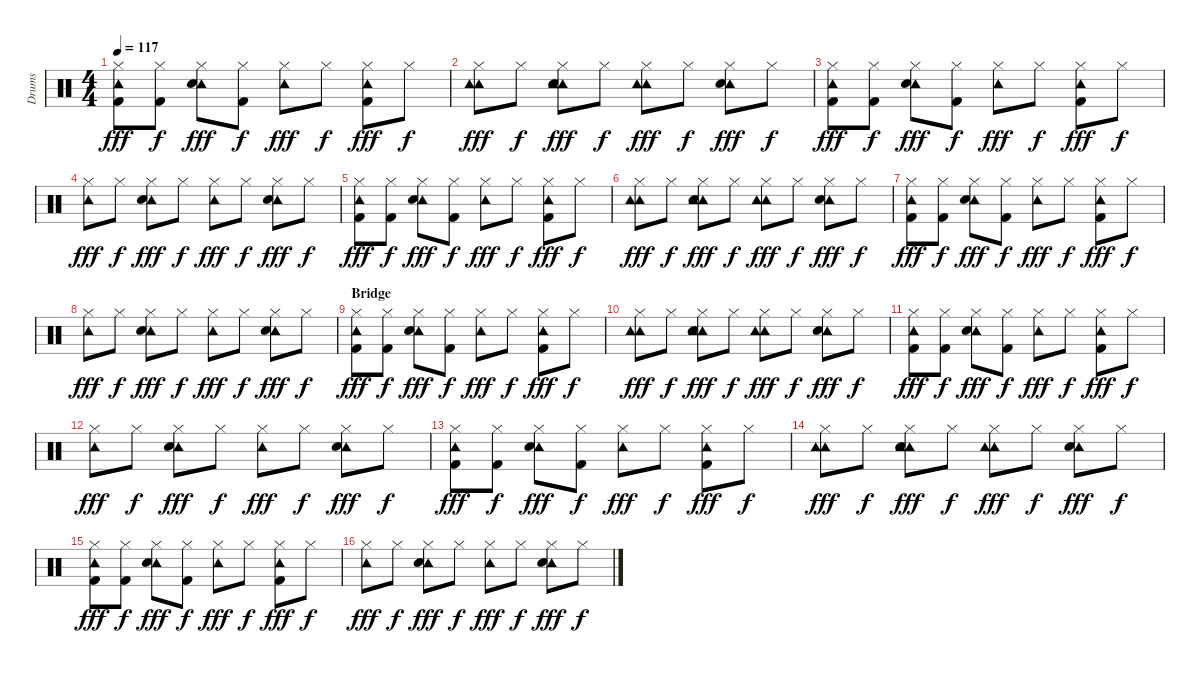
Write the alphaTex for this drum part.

\track ("Drums" "Drums") {instrument percussion}
\staff {score}
\articulation defaults
\ts (4 4)
\tempo 117
\clef neutral
\ks c
("Tambourine (hit)" "Hi-Hat (closed)" "Kick (hit) 2").8{dy fff} ("Hi-Hat (closed)" "Kick (hit) 2").8{dy f} ("Tambourine (hit)" "Hi-Hat (closed)" "Snare (hit) 2").8{dy fff} ("Hi-Hat (closed)" "Kick (hit) 2").8{dy f} ("Tambourine (hit)" "Hi-Hat (closed)").8{dy fff} "Hi-Hat (closed)".8{dy f} ("Tambourine (hit)" "Hi-Hat (closed)" "Kick (hit) 2").8{dy fff} "Hi-Hat (closed)".8{dy f} |
("Tambourine (hit)" "Tambourine (hit)" "Hi-Hat (closed)").8{dy fff} "Hi-Hat (closed)".8{dy f} ("Tambourine (hit)" "Tambourine (hit)" "Hi-Hat (closed)" "Snare (hit) 2").8{dy fff} "Hi-Hat (closed)".8{dy f} ("Tambourine (hit)" "Tambourine (hit)" "Hi-Hat (closed)").8{dy fff} "Hi-Hat (closed)".8{dy f} ("Tambourine (hit)" "Hi-Hat (closed)" "Snare (hit) 2").8{dy fff} "Hi-Hat (closed)".8{dy f} |
("Tambourine (hit)" "Hi-Hat (closed)" "Kick (hit) 2").8{dy fff} ("Hi-Hat (closed)" "Kick (hit) 2").8{dy f} ("Tambourine (hit)" "Hi-Hat (closed)" "Snare (hit) 2").8{dy fff} ("Hi-Hat (closed)" "Kick (hit) 2").8{dy f} ("Tambourine (hit)" "Hi-Hat (closed)").8{dy fff} "Hi-Hat (closed)".8{dy f} ("Tambourine (hit)" "Hi-Hat (closed)" "Kick (hit) 2").8{dy fff} "Hi-Hat (closed)".8{dy f} |
("Tambourine (hit)" "Hi-Hat (closed)").8{dy fff} "Hi-Hat (closed)".8{dy f} ("Tambourine (hit)" "Hi-Hat (closed)" "Snare (hit) 2").8{dy fff} "Hi-Hat (closed)".8{dy f} ("Tambourine (hit)" "Hi-Hat (closed)").8{dy fff} "Hi-Hat (closed)".8{dy f} ("Tambourine (hit)" "Hi-Hat (closed)" "Snare (hit) 2").8{dy fff} "Hi-Hat (closed)".8{dy f} |
("Tambourine (hit)" "Hi-Hat (closed)" "Kick (hit) 2").8{dy fff} ("Hi-Hat (closed)" "Kick (hit) 2").8{dy f} ("Tambourine (hit)" "Hi-Hat (closed)" "Snare (hit) 2").8{dy fff} ("Hi-Hat (closed)" "Kick (hit) 2").8{dy f} ("Tambourine (hit)" "Hi-Hat (closed)").8{dy fff} "Hi-Hat (closed)".8{dy f} ("Tambourine (hit)" "Hi-Hat (closed)" "Kick (hit) 2").8{dy fff} "Hi-Hat (closed)".8{dy f} |
("Tambourine (hit)" "Tambourine (hit)" "Hi-Hat (closed)").8{dy fff} "Hi-Hat (closed)".8{dy f} ("Tambourine (hit)" "Tambourine (hit)" "Hi-Hat (closed)" "Snare (hit) 2").8{dy fff} "Hi-Hat (closed)".8{dy f} ("Tambourine (hit)" "Tambourine (hit)" "Hi-Hat (closed)").8{dy fff} "Hi-Hat (closed)".8{dy f} ("Tambourine (hit)" "Hi-Hat (closed)" "Snare (hit) 2").8{dy fff} "Hi-Hat (closed)".8{dy f} |
("Tambourine (hit)" "Hi-Hat (closed)" "Kick (hit) 2").8{dy fff} ("Hi-Hat (closed)" "Kick (hit) 2").8{dy f} ("Tambourine (hit)" "Hi-Hat (closed)" "Snare (hit) 2").8{dy fff} ("Hi-Hat (closed)" "Kick (hit) 2").8{dy f} ("Tambourine (hit)" "Hi-Hat (closed)").8{dy fff} "Hi-Hat (closed)".8{dy f} ("Tambourine (hit)" "Hi-Hat (closed)" "Kick (hit) 2").8{dy fff} "Hi-Hat (closed)".8{dy f} |
("Tambourine (hit)" "Hi-Hat (closed)").8{dy fff} "Hi-Hat (closed)".8{dy f} ("Tambourine (hit)" "Hi-Hat (closed)" "Snare (hit) 2").8{dy fff} "Hi-Hat (closed)".8{dy f} ("Tambourine (hit)" "Hi-Hat (closed)").8{dy fff} "Hi-Hat (closed)".8{dy f} ("Tambourine (hit)" "Hi-Hat (closed)" "Snare (hit) 2").8{dy fff} "Hi-Hat (closed)".8{dy f} |
\section ("" "Bridge")
("Tambourine (hit)" "Hi-Hat (closed)" "Kick (hit) 2").8{dy fff} ("Hi-Hat (closed)" "Kick (hit) 2").8{dy f} ("Tambourine (hit)" "Hi-Hat (closed)" "Snare (hit) 2").8{dy fff} ("Hi-Hat (closed)" "Kick (hit) 2").8{dy f} ("Tambourine (hit)" "Hi-Hat (closed)").8{dy fff} "Hi-Hat (closed)".8{dy f} ("Tambourine (hit)" "Hi-Hat (closed)" "Kick (hit) 2").8{dy fff} "Hi-Hat (closed)".8{dy f} |
("Tambourine (hit)" "Tambourine (hit)" "Hi-Hat (closed)").8{dy fff} "Hi-Hat (closed)".8{dy f} ("Tambourine (hit)" "Tambourine (hit)" "Hi-Hat (closed)" "Snare (hit) 2").8{dy fff} "Hi-Hat (closed)".8{dy f} ("Tambourine (hit)" "Tambourine (hit)" "Hi-Hat (closed)").8{dy fff} "Hi-Hat (closed)".8{dy f} ("Tambourine (hit)" "Hi-Hat (closed)" "Snare (hit) 2").8{dy fff} "Hi-Hat (closed)".8{dy f} |
("Tambourine (hit)" "Hi-Hat (closed)" "Kick (hit) 2").8{dy fff} ("Hi-Hat (closed)" "Kick (hit) 2").8{dy f} ("Tambourine (hit)" "Hi-Hat (closed)" "Snare (hit) 2").8{dy fff} ("Hi-Hat (closed)" "Kick (hit) 2").8{dy f} ("Tambourine (hit)" "Hi-Hat (closed)").8{dy fff} "Hi-Hat (closed)".8{dy f} ("Tambourine (hit)" "Hi-Hat (closed)" "Kick (hit) 2").8{dy fff} "Hi-Hat (closed)".8{dy f} |
("Tambourine (hit)" "Hi-Hat (closed)").8{dy fff} "Hi-Hat (closed)".8{dy f} ("Tambourine (hit)" "Hi-Hat (closed)" "Snare (hit) 2").8{dy fff} "Hi-Hat (closed)".8{dy f} ("Tambourine (hit)" "Hi-Hat (closed)").8{dy fff} "Hi-Hat (closed)".8{dy f} ("Tambourine (hit)" "Hi-Hat (closed)" "Snare (hit) 2").8{dy fff} "Hi-Hat (closed)".8{dy f} |
("Tambourine (hit)" "Hi-Hat (closed)" "Kick (hit) 2").8{dy fff} ("Hi-Hat (closed)" "Kick (hit) 2").8{dy f} ("Tambourine (hit)" "Hi-Hat (closed)" "Snare (hit) 2").8{dy fff} ("Hi-Hat (closed)" "Kick (hit) 2").8{dy f} ("Tambourine (hit)" "Hi-Hat (closed)").8{dy fff} "Hi-Hat (closed)".8{dy f} ("Tambourine (hit)" "Hi-Hat (closed)" "Kick (hit) 2").8{dy fff} "Hi-Hat (closed)".8{dy f} |
("Tambourine (hit)" "Tambourine (hit)" "Hi-Hat (closed)").8{dy fff} "Hi-Hat (closed)".8{dy f} ("Tambourine (hit)" "Tambourine (hit)" "Hi-Hat (closed)" "Snare (hit) 2").8{dy fff} "Hi-Hat (closed)".8{dy f} ("Tambourine (hit)" "Tambourine (hit)" "Hi-Hat (closed)").8{dy fff} "Hi-Hat (closed)".8{dy f} ("Tambourine (hit)" "Hi-Hat (closed)" "Snare (hit) 2").8{dy fff} "Hi-Hat (closed)".8{dy f} |
("Tambourine (hit)" "Hi-Hat (closed)" "Kick (hit) 2").8{dy fff} ("Hi-Hat (closed)" "Kick (hit) 2").8{dy f} ("Tambourine (hit)" "Hi-Hat (closed)" "Snare (hit) 2").8{dy fff} ("Hi-Hat (closed)" "Kick (hit) 2").8{dy f} ("Tambourine (hit)" "Hi-Hat (closed)").8{dy fff} "Hi-Hat (closed)".8{dy f} ("Tambourine (hit)" "Hi-Hat (closed)" "Kick (hit) 2").8{dy fff} "Hi-Hat (closed)".8{dy f} |
("Tambourine (hit)" "Hi-Hat (closed)").8{dy fff} "Hi-Hat (closed)".8{dy f} ("Tambourine (hit)" "Hi-Hat (closed)" "Snare (hit) 2").8{dy fff} "Hi-Hat (closed)".8{dy f} ("Tambourine (hit)" "Hi-Hat (closed)").8{dy fff} "Hi-Hat (closed)".8{dy f} ("Tambourine (hit)" "Hi-Hat (closed)" "Snare (hit) 2").8{dy fff} "Hi-Hat (closed)".8{dy f}
